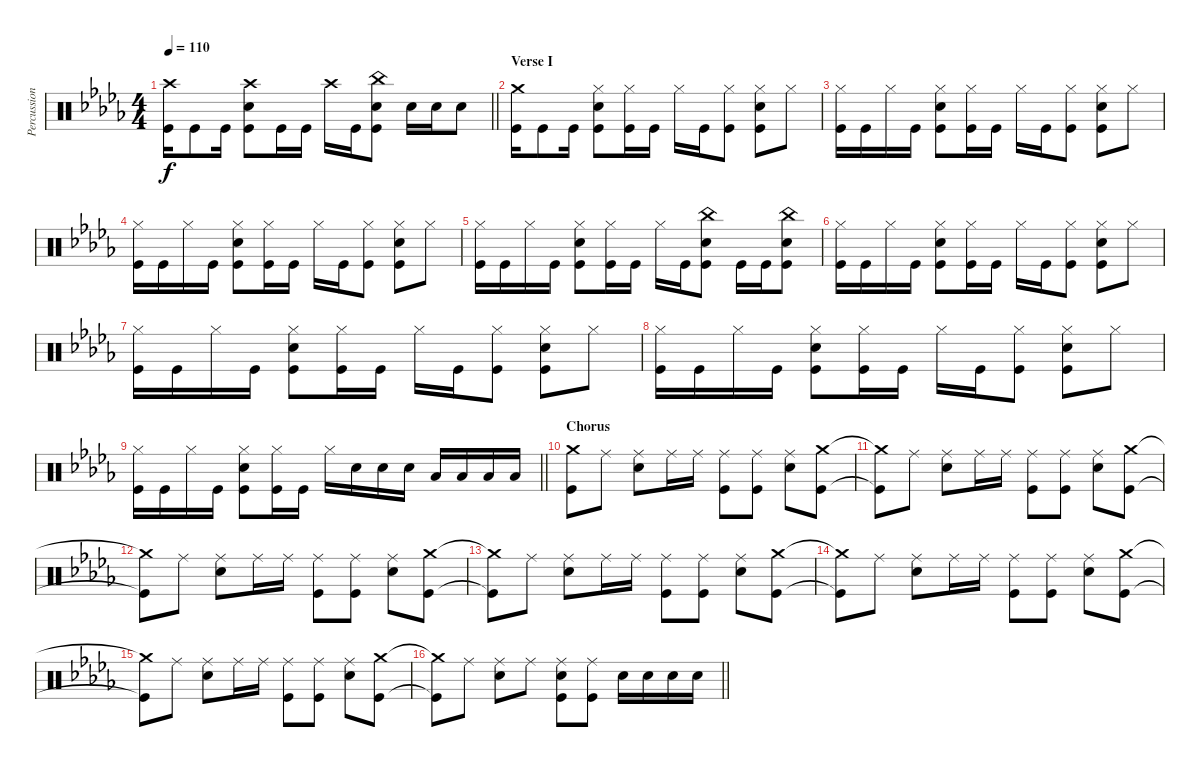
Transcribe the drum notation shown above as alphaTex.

\track ("Percussion" "Percussion") {instrument percussion}
\staff {score}
\articulation defaults
\ts (4 4)
\tempo 110
\clef neutral
\barLineRight lightlight
\ks db
("Crash high (hit)" "Kick (hit)").16{dy f} "Kick (hit)".8 "Kick (hit)".16 ("Crash high (hit)" "Electric Snare (hit)" "Kick (hit)").8 "Kick (hit)".16 "Kick (hit)".16 "Crash high (hit)".16 "Kick (hit)".16 ("China (hit)" "Electric Snare (hit)" "Kick (hit)").8 "Electric Snare (hit)".16 "Electric Snare (hit)".16 "Electric Snare (hit)".8 |
\section ("" "Verse I")
("Crash medium (hit)" "Kick (hit)").16 "Kick (hit)".8 "Kick (hit)".16 ("Hi-Hat (closed)" "Electric Snare (hit)" "Kick (hit)").8 ("Hi-Hat (closed)" "Kick (hit)").16 "Kick (hit)".16 "Hi-Hat (closed)".16 "Kick (hit)".16 ("Hi-Hat (closed)" "Kick (hit)").8 ("Hi-Hat (closed)" "Electric Snare (hit)" "Kick (hit)").8 "Hi-Hat (closed)".8 |
("Hi-Hat (closed)" "Kick (hit)").16 "Kick (hit)".16 "Hi-Hat (closed)".16 "Kick (hit)".16 ("Hi-Hat (closed)" "Electric Snare (hit)" "Kick (hit)").8 ("Hi-Hat (closed)" "Kick (hit)").16 "Kick (hit)".16 "Hi-Hat (closed)".16 "Kick (hit)".16 ("Hi-Hat (closed)" "Kick (hit)").8 ("Hi-Hat (closed)" "Electric Snare (hit)" "Kick (hit)").8 "Hi-Hat (closed)".8 |
("Hi-Hat (closed)" "Kick (hit)").16 "Kick (hit)".16 "Hi-Hat (closed)".16 "Kick (hit)".16 ("Hi-Hat (closed)" "Electric Snare (hit)" "Kick (hit)").8 ("Hi-Hat (closed)" "Kick (hit)").16 "Kick (hit)".16 "Hi-Hat (closed)".16 "Kick (hit)".16 ("Hi-Hat (closed)" "Kick (hit)").8 ("Hi-Hat (closed)" "Electric Snare (hit)" "Kick (hit)").8 "Hi-Hat (closed)".8 |
("Hi-Hat (closed)" "Kick (hit)").16 "Kick (hit)".16 "Hi-Hat (closed)".16 "Kick (hit)".16 ("Hi-Hat (closed)" "Electric Snare (hit)" "Kick (hit)").8 ("Hi-Hat (closed)" "Kick (hit)").16 "Kick (hit)".16 "Hi-Hat (closed)".16 "Kick (hit)".16 ("China (hit)" "Electric Snare (hit)" "Kick (hit)").8 "Kick (hit)".16 "Kick (hit)".16 ("China (hit)" "Electric Snare (hit)" "Kick (hit)").8 |
("Hi-Hat (closed)" "Kick (hit)").16 "Kick (hit)".16 "Hi-Hat (closed)".16 "Kick (hit)".16 ("Hi-Hat (closed)" "Electric Snare (hit)" "Kick (hit)").8 ("Hi-Hat (closed)" "Kick (hit)").16 "Kick (hit)".16 "Hi-Hat (closed)".16 "Kick (hit)".16 ("Hi-Hat (closed)" "Kick (hit)").8 ("Hi-Hat (closed)" "Electric Snare (hit)" "Kick (hit)").8 "Hi-Hat (closed)".8 |
("Hi-Hat (closed)" "Kick (hit)").16 "Kick (hit)".16 "Hi-Hat (closed)".16 "Kick (hit)".16 ("Hi-Hat (closed)" "Electric Snare (hit)" "Kick (hit)").8 ("Hi-Hat (closed)" "Kick (hit)").16 "Kick (hit)".16 "Hi-Hat (closed)".16 "Kick (hit)".16 ("Hi-Hat (closed)" "Kick (hit)").8 ("Hi-Hat (closed)" "Electric Snare (hit)" "Kick (hit)").8 "Hi-Hat (closed)".8 |
("Hi-Hat (closed)" "Kick (hit)").16 "Kick (hit)".16 "Hi-Hat (closed)".16 "Kick (hit)".16 ("Hi-Hat (closed)" "Electric Snare (hit)" "Kick (hit)").8 ("Hi-Hat (closed)" "Kick (hit)").16 "Kick (hit)".16 "Hi-Hat (closed)".16 "Kick (hit)".16 ("Hi-Hat (closed)" "Kick (hit)").8 ("Hi-Hat (closed)" "Electric Snare (hit)" "Kick (hit)").8 "Hi-Hat (closed)".8 |
\barLineRight lightlight
("Hi-Hat (closed)" "Kick (hit)").16 "Kick (hit)".16 "Hi-Hat (closed)".16 "Kick (hit)".16 ("Hi-Hat (closed)" "Electric Snare (hit)" "Kick (hit)").8 ("Hi-Hat (closed)" "Kick (hit)").16 "Kick (hit)".16 "Hi-Hat (closed)".16 "Electric Snare (hit)".16 "Electric Snare (hit)".16 "Electric Snare (hit)".16 "Low Tom (hit)".16 "Low Tom (hit)".16 "Low Floor Tom (hit)".16 "Low Floor Tom (hit)".16 |
\section ("" "Chorus")
("Crash medium (hit)" "Kick (hit)").8 "Ride (middle)".8 ("Ride (middle)" "Electric Snare (hit)").8 "Ride (middle)".16 "Ride (middle)".16 ("Ride (middle)" "Kick (hit)").8 ("Ride (middle)" "Kick (hit)").8 ("Ride (middle)" "Electric Snare (hit)").8 ("Crash medium (hit)" "Kick (hit)").8 |
("Crash medium (hit)"{t} "Kick (hit)"{t}).8 "Ride (middle)".8 ("Ride (middle)" "Electric Snare (hit)").8 "Ride (middle)".16 "Ride (middle)".16 ("Ride (middle)" "Kick (hit)").8 ("Ride (middle)" "Kick (hit)").8 ("Ride (middle)" "Electric Snare (hit)").8 ("Crash medium (hit)" "Kick (hit)").8 |
("Crash medium (hit)"{t} "Kick (hit)"{t}).8 "Ride (middle)".8 ("Ride (middle)" "Electric Snare (hit)").8 "Ride (middle)".16 "Ride (middle)".16 ("Ride (middle)" "Kick (hit)").8 ("Ride (middle)" "Kick (hit)").8 ("Ride (middle)" "Electric Snare (hit)").8 ("Crash medium (hit)" "Kick (hit)").8 |
("Crash medium (hit)"{t} "Kick (hit)"{t}).8 "Ride (middle)".8 ("Ride (middle)" "Electric Snare (hit)").8 "Ride (middle)".16 "Ride (middle)".16 ("Ride (middle)" "Kick (hit)").8 ("Ride (middle)" "Kick (hit)").8 ("Ride (middle)" "Electric Snare (hit)").8 ("Crash medium (hit)" "Kick (hit)").8 |
("Crash medium (hit)"{t} "Kick (hit)"{t}).8 "Ride (middle)".8 ("Ride (middle)" "Electric Snare (hit)").8 "Ride (middle)".16 "Ride (middle)".16 ("Ride (middle)" "Kick (hit)").8 ("Ride (middle)" "Kick (hit)").8 ("Ride (middle)" "Electric Snare (hit)").8 ("Crash medium (hit)" "Kick (hit)").8 |
("Crash medium (hit)"{t} "Kick (hit)"{t}).8 "Ride (middle)".8 ("Ride (middle)" "Electric Snare (hit)").8 "Ride (middle)".16 "Ride (middle)".16 ("Ride (middle)" "Kick (hit)").8 ("Ride (middle)" "Kick (hit)").8 ("Ride (middle)" "Electric Snare (hit)").8 ("Crash medium (hit)" "Kick (hit)").8 |
\barLineRight lightlight
("Crash medium (hit)"{t} "Kick (hit)"{t}).8 "Ride (middle)".8 ("Ride (middle)" "Electric Snare (hit)").8 "Ride (middle)".8 ("Ride (middle)" "Electric Snare (hit)" "Kick (hit)").8 ("Ride (middle)" "Kick (hit)").8 "Electric Snare (hit)".16 "Electric Snare (hit)".16 "Electric Snare (hit)".16 "Electric Snare (hit)".16
